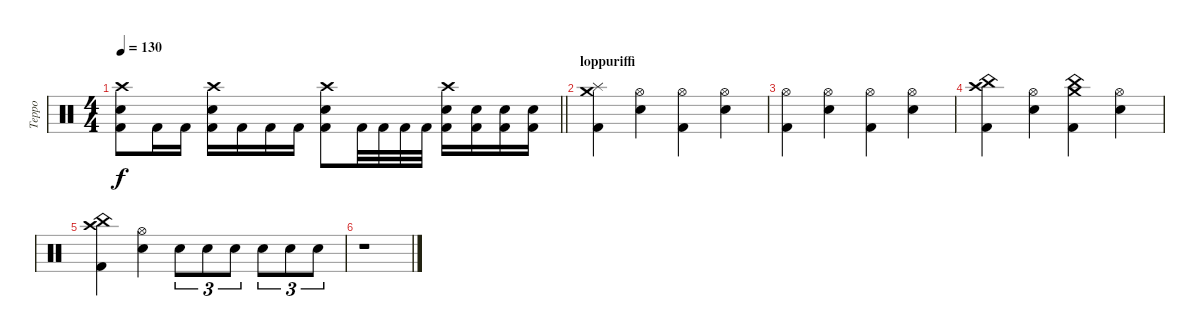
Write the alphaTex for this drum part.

\track ("Teppo" "Teppo") {instrument percussion}
\staff {score}
\articulation defaults
\ts (4 4)
\tempo 130
\clef neutral
\barLineRight lightlight
\ks c
("Crash high (hit)" "Electric Snare (hit)" "Kick (hit) 2").8{dy f} "Kick (hit) 2".16 "Kick (hit) 2".16 ("Crash high (hit)" "Electric Snare (hit)" "Kick (hit) 2").16 "Kick (hit) 2".16 "Kick (hit) 2".16 "Kick (hit) 2".16 ("Crash high (hit)" "Electric Snare (hit)" "Kick (hit) 2").8 "Kick (hit) 2".32 "Kick (hit) 2".32 "Kick (hit) 2".32 "Kick (hit) 2".32 ("Crash high (hit)" "Electric Snare (hit)" "Kick (hit) 2").16 ("Electric Snare (hit)" "Kick (hit) 2").16 ("Electric Snare (hit)" "Kick (hit) 2").16 ("Electric Snare (hit)" "Kick (hit) 2").16 |
\section ("" "loppuriffi")
("Crash medium (hit)" "Splash (hit)" "Kick (hit) 2").4 ("Hi-Hat (open)" "Electric Snare (hit)").4 ("Hi-Hat (open)" "Kick (hit) 2").4 ("Hi-Hat (open)" "Electric Snare (hit)").4 |
("Hi-Hat (open)" "Kick (hit) 2").4 ("Hi-Hat (open)" "Electric Snare (hit)").4 ("Hi-Hat (open)" "Kick (hit) 2").4 ("Hi-Hat (open)" "Electric Snare (hit)").4 |
("Crash high (hit)" "China (hit)" "Kick (hit) 2").4 ("Hi-Hat (open)" "Electric Snare (hit)").4 ("Crash medium (hit)" "China (hit)" "Kick (hit) 2").4 ("Hi-Hat (open)" "Electric Snare (hit)").4 |
("Crash high (hit)" "China (hit)" "Kick (hit) 2").4 ("Hi-Hat (open)" "Electric Snare (hit)").4 "Electric Snare (hit)".8{tu (3 2)} "Electric Snare (hit)".8{tu (3 2)} "Electric Snare (hit)".8{tu (3 2)} "Electric Snare (hit)".8{tu (3 2)} "Electric Snare (hit)".8{tu (3 2)} "Electric Snare (hit)".8{tu (3 2)} |
r.1
